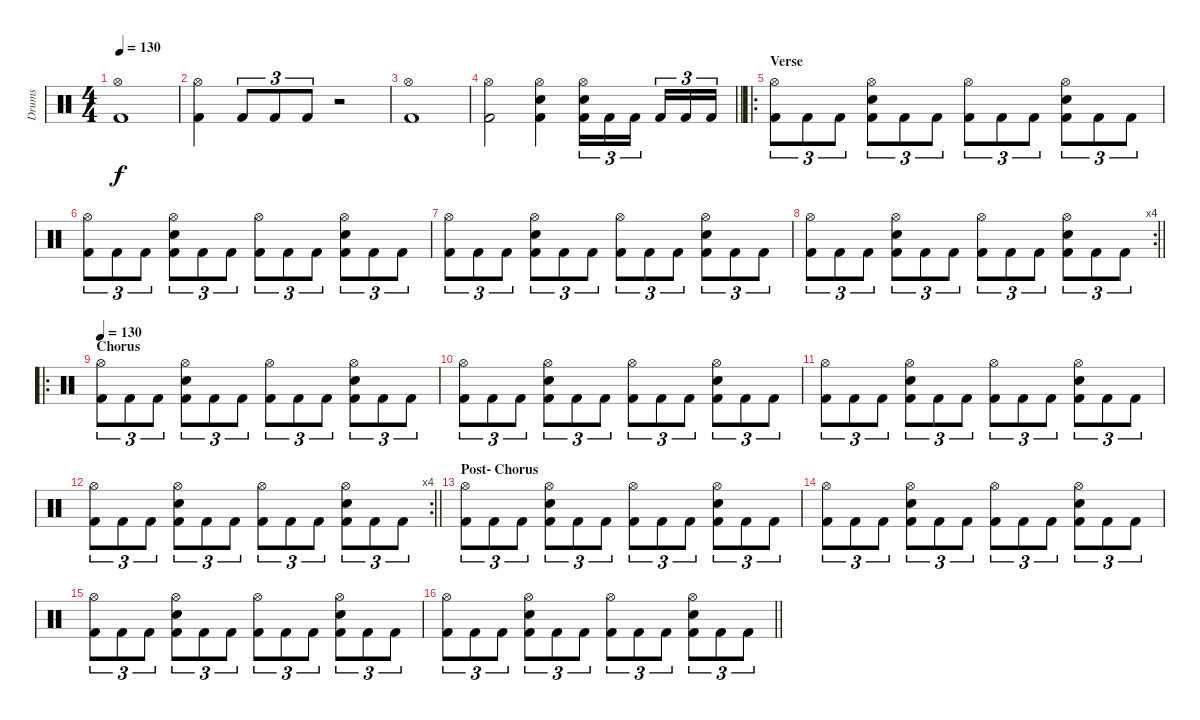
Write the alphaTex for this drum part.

\track ("Drums" "Drums") {instrument percussion}
\staff {score}
\articulation defaults
\ts (4 4)
\tempo 130
\clef neutral
\ks c
("Hi-Hat (open)" "Kick (hit) 2").1{dy f} |
("Hi-Hat (open)" "Kick (hit) 2").4 "Kick (hit) 2".8{tu (3 2)} "Kick (hit) 2".8{tu (3 2)} "Kick (hit) 2".8{tu (3 2)} r.2 |
("Hi-Hat (open)" "Kick (hit) 2").1 |
\barLineRight lightlight
("Hi-Hat (open)" "Kick (hit) 2").2 ("Hi-Hat (open)" "Snare (hit) 2" "Kick (hit) 2").4 ("Hi-Hat (open)" "Snare (hit) 2" "Kick (hit) 2").16{tu (3 2)} "Kick (hit) 2".16{tu (3 2)} "Kick (hit) 2".16{tu (3 2) beam splitsecondary} "Kick (hit) 2".16{tu (3 2)} "Kick (hit) 2".16{tu (3 2)} "Kick (hit) 2".16{tu (3 2)} |
\ro
\section ("" "Verse")
("Hi-Hat (open)" "Kick (hit) 2").8{tu (3 2)} "Kick (hit) 2".8{tu (3 2)} "Kick (hit) 2".8{tu (3 2)} ("Hi-Hat (open)" "Snare (hit) 2" "Kick (hit) 2").8{tu (3 2)} "Kick (hit) 2".8{tu (3 2)} "Kick (hit) 2".8{tu (3 2)} ("Hi-Hat (open)" "Kick (hit) 2").8{tu (3 2)} "Kick (hit) 2".8{tu (3 2)} "Kick (hit) 2".8{tu (3 2)} ("Hi-Hat (open)" "Snare (hit) 2" "Kick (hit) 2").8{tu (3 2)} "Kick (hit) 2".8{tu (3 2)} "Kick (hit) 2".8{tu (3 2)} |
("Hi-Hat (open)" "Kick (hit) 2").8{tu (3 2)} "Kick (hit) 2".8{tu (3 2)} "Kick (hit) 2".8{tu (3 2)} ("Hi-Hat (open)" "Snare (hit) 2" "Kick (hit) 2").8{tu (3 2)} "Kick (hit) 2".8{tu (3 2)} "Kick (hit) 2".8{tu (3 2)} ("Hi-Hat (open)" "Kick (hit) 2").8{tu (3 2)} "Kick (hit) 2".8{tu (3 2)} "Kick (hit) 2".8{tu (3 2)} ("Hi-Hat (open)" "Snare (hit) 2" "Kick (hit) 2").8{tu (3 2)} "Kick (hit) 2".8{tu (3 2)} "Kick (hit) 2".8{tu (3 2)} |
("Hi-Hat (open)" "Kick (hit) 2").8{tu (3 2)} "Kick (hit) 2".8{tu (3 2)} "Kick (hit) 2".8{tu (3 2)} ("Hi-Hat (open)" "Snare (hit) 2" "Kick (hit) 2").8{tu (3 2)} "Kick (hit) 2".8{tu (3 2)} "Kick (hit) 2".8{tu (3 2)} ("Hi-Hat (open)" "Kick (hit) 2").8{tu (3 2)} "Kick (hit) 2".8{tu (3 2)} "Kick (hit) 2".8{tu (3 2)} ("Hi-Hat (open)" "Snare (hit) 2" "Kick (hit) 2").8{tu (3 2)} "Kick (hit) 2".8{tu (3 2)} "Kick (hit) 2".8{tu (3 2)} |
\rc 4
\barLineRight lightlight
("Hi-Hat (open)" "Kick (hit) 2").8{tu (3 2)} "Kick (hit) 2".8{tu (3 2)} "Kick (hit) 2".8{tu (3 2)} ("Hi-Hat (open)" "Snare (hit) 2" "Kick (hit) 2").8{tu (3 2)} "Kick (hit) 2".8{tu (3 2)} "Kick (hit) 2".8{tu (3 2)} ("Hi-Hat (open)" "Kick (hit) 2").8{tu (3 2)} "Kick (hit) 2".8{tu (3 2)} "Kick (hit) 2".8{tu (3 2)} ("Hi-Hat (open)" "Snare (hit) 2" "Kick (hit) 2").8{tu (3 2)} "Kick (hit) 2".8{tu (3 2)} "Kick (hit) 2".8{tu (3 2)} |
\ro
\section ("" "Chorus")
\tempo 130
("Hi-Hat (open)" "Kick (hit) 2").8{tu (3 2)} "Kick (hit) 2".8{tu (3 2)} "Kick (hit) 2".8{tu (3 2)} ("Hi-Hat (open)" "Snare (hit) 2" "Kick (hit) 2").8{tu (3 2)} "Kick (hit) 2".8{tu (3 2)} "Kick (hit) 2".8{tu (3 2)} ("Hi-Hat (open)" "Kick (hit) 2").8{tu (3 2)} "Kick (hit) 2".8{tu (3 2)} "Kick (hit) 2".8{tu (3 2)} ("Hi-Hat (open)" "Snare (hit) 2" "Kick (hit) 2").8{tu (3 2)} "Kick (hit) 2".8{tu (3 2)} "Kick (hit) 2".8{tu (3 2)} |
("Hi-Hat (open)" "Kick (hit) 2").8{tu (3 2)} "Kick (hit) 2".8{tu (3 2)} "Kick (hit) 2".8{tu (3 2)} ("Hi-Hat (open)" "Snare (hit) 2" "Kick (hit) 2").8{tu (3 2)} "Kick (hit) 2".8{tu (3 2)} "Kick (hit) 2".8{tu (3 2)} ("Hi-Hat (open)" "Kick (hit) 2").8{tu (3 2)} "Kick (hit) 2".8{tu (3 2)} "Kick (hit) 2".8{tu (3 2)} ("Hi-Hat (open)" "Snare (hit) 2" "Kick (hit) 2").8{tu (3 2)} "Kick (hit) 2".8{tu (3 2)} "Kick (hit) 2".8{tu (3 2)} |
("Hi-Hat (open)" "Kick (hit) 2").8{tu (3 2)} "Kick (hit) 2".8{tu (3 2)} "Kick (hit) 2".8{tu (3 2)} ("Hi-Hat (open)" "Snare (hit) 2" "Kick (hit) 2").8{tu (3 2)} "Kick (hit) 2".8{tu (3 2)} "Kick (hit) 2".8{tu (3 2)} ("Hi-Hat (open)" "Kick (hit) 2").8{tu (3 2)} "Kick (hit) 2".8{tu (3 2)} "Kick (hit) 2".8{tu (3 2)} ("Hi-Hat (open)" "Snare (hit) 2" "Kick (hit) 2").8{tu (3 2)} "Kick (hit) 2".8{tu (3 2)} "Kick (hit) 2".8{tu (3 2)} |
\rc 4
\barLineRight lightlight
("Hi-Hat (open)" "Kick (hit) 2").8{tu (3 2)} "Kick (hit) 2".8{tu (3 2)} "Kick (hit) 2".8{tu (3 2)} ("Hi-Hat (open)" "Snare (hit) 2" "Kick (hit) 2").8{tu (3 2)} "Kick (hit) 2".8{tu (3 2)} "Kick (hit) 2".8{tu (3 2)} ("Hi-Hat (open)" "Kick (hit) 2").8{tu (3 2)} "Kick (hit) 2".8{tu (3 2)} "Kick (hit) 2".8{tu (3 2)} ("Hi-Hat (open)" "Snare (hit) 2" "Kick (hit) 2").8{tu (3 2)} "Kick (hit) 2".8{tu (3 2)} "Kick (hit) 2".8{tu (3 2)} |
\section ("" "Post- Chorus")
("Hi-Hat (open)" "Kick (hit) 2").8{tu (3 2)} "Kick (hit) 2".8{tu (3 2)} "Kick (hit) 2".8{tu (3 2)} ("Hi-Hat (open)" "Snare (hit) 2" "Kick (hit) 2").8{tu (3 2)} "Kick (hit) 2".8{tu (3 2)} "Kick (hit) 2".8{tu (3 2)} ("Hi-Hat (open)" "Kick (hit) 2").8{tu (3 2)} "Kick (hit) 2".8{tu (3 2)} "Kick (hit) 2".8{tu (3 2)} ("Hi-Hat (open)" "Snare (hit) 2" "Kick (hit) 2").8{tu (3 2)} "Kick (hit) 2".8{tu (3 2)} "Kick (hit) 2".8{tu (3 2)} |
("Hi-Hat (open)" "Kick (hit) 2").8{tu (3 2)} "Kick (hit) 2".8{tu (3 2)} "Kick (hit) 2".8{tu (3 2)} ("Hi-Hat (open)" "Snare (hit) 2" "Kick (hit) 2").8{tu (3 2)} "Kick (hit) 2".8{tu (3 2)} "Kick (hit) 2".8{tu (3 2)} ("Hi-Hat (open)" "Kick (hit) 2").8{tu (3 2)} "Kick (hit) 2".8{tu (3 2)} "Kick (hit) 2".8{tu (3 2)} ("Hi-Hat (open)" "Snare (hit) 2" "Kick (hit) 2").8{tu (3 2)} "Kick (hit) 2".8{tu (3 2)} "Kick (hit) 2".8{tu (3 2)} |
("Hi-Hat (open)" "Kick (hit) 2").8{tu (3 2)} "Kick (hit) 2".8{tu (3 2)} "Kick (hit) 2".8{tu (3 2)} ("Hi-Hat (open)" "Snare (hit) 2" "Kick (hit) 2").8{tu (3 2)} "Kick (hit) 2".8{tu (3 2)} "Kick (hit) 2".8{tu (3 2)} ("Hi-Hat (open)" "Kick (hit) 2").8{tu (3 2)} "Kick (hit) 2".8{tu (3 2)} "Kick (hit) 2".8{tu (3 2)} ("Hi-Hat (open)" "Snare (hit) 2" "Kick (hit) 2").8{tu (3 2)} "Kick (hit) 2".8{tu (3 2)} "Kick (hit) 2".8{tu (3 2)} |
\barLineRight lightlight
("Hi-Hat (open)" "Kick (hit) 2").8{tu (3 2)} "Kick (hit) 2".8{tu (3 2)} "Kick (hit) 2".8{tu (3 2)} ("Hi-Hat (open)" "Snare (hit) 2" "Kick (hit) 2").8{tu (3 2)} "Kick (hit) 2".8{tu (3 2)} "Kick (hit) 2".8{tu (3 2)} ("Hi-Hat (open)" "Kick (hit) 2").8{tu (3 2)} "Kick (hit) 2".8{tu (3 2)} "Kick (hit) 2".8{tu (3 2)} ("Hi-Hat (open)" "Snare (hit) 2" "Kick (hit) 2").8{tu (3 2)} "Kick (hit) 2".8{tu (3 2)} "Kick (hit) 2".8{tu (3 2)}
